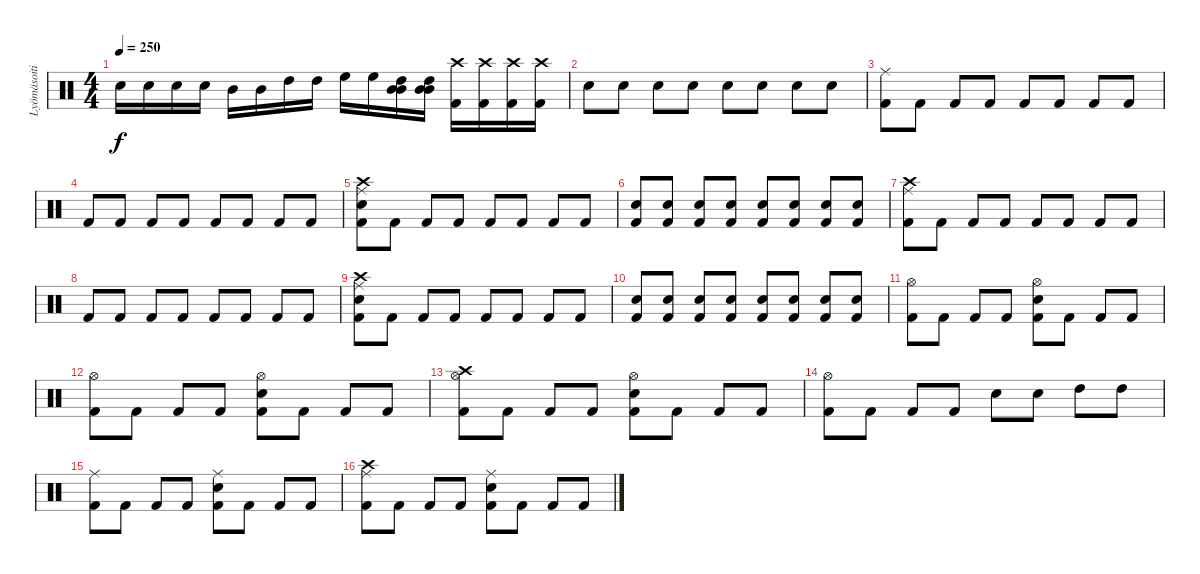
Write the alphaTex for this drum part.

\track ("Lyömäsoitin" "Lyömäsoiti") {instrument percussion}
\staff {score}
\articulation defaults
\ts (4 4)
\tempo 250
\clef neutral
\ks c "Electric Snare (hit)".16{dy f} "Electric Snare (hit)".16 "Electric Snare (hit)".16 "Electric Snare (hit)".16 "Mid Tom (hit)".16 "Mid Tom (hit)".16 "High Tom (hit)".16 "High Tom (hit)".16 "High Floor Tom (hit)".16 "High Floor Tom (hit)".16
("High Tom (hit)" "Mid Tom (hit)" "Mid Tom (hit)").16 ("High Tom (hit)" "Mid Tom (hit)" "Mid Tom (hit)").16 ("Crash high (hit)" "Kick (hit) 2").16 ("Crash high (hit)" "Kick (hit) 2").16 ("Crash high (hit)" "Kick (hit) 2").16 ("Crash high (hit)" "Kick (hit) 2").16 |
"Electric Snare (hit)".8 "Electric Snare (hit)".8 "Electric Snare (hit)".8 "Electric Snare (hit)".8 "Electric Snare (hit)".8 "Electric Snare (hit)".8 "Electric Snare (hit)".8 "Electric Snare (hit)".8 |
("Ride (middle)" "Kick (hit) 2").8 "Kick (hit) 2".8 "Kick (hit) 2".8 "Kick (hit) 2".8 "Kick (hit) 2".8 "Kick (hit) 2".8 "Kick (hit) 2".8 "Kick (hit) 2".8 |
"Kick (hit) 2".8 "Kick (hit) 2".8 "Kick (hit) 2".8 "Kick (hit) 2".8 "Kick (hit) 2".8 "Kick (hit) 2".8 "Kick (hit) 2".8 "Kick (hit) 2".8 |
("Crash high (hit)" "Ride (middle)" "Electric Snare (hit)" "Kick (hit) 2").8 "Kick (hit) 2".8 "Kick (hit) 2".8 "Kick (hit) 2".8 "Kick (hit) 2".8 "Kick (hit) 2".8 "Kick (hit) 2".8 "Kick (hit) 2".8 |
("Kick (hit) 2" "Electric Snare (hit)").8 ("Kick (hit) 2" "Electric Snare (hit)").8 ("Kick (hit) 2" "Electric Snare (hit)").8 ("Kick (hit) 2" "Electric Snare (hit)").8 ("Kick (hit) 2" "Electric Snare (hit)").8 ("Kick (hit) 2" "Electric Snare (hit)").8 ("Kick (hit) 2" "Electric Snare (hit)").8 ("Kick (hit) 2" "Electric Snare (hit)").8 |
("Crash high (hit)" "Ride (middle)" "Kick (hit) 2").8 "Kick (hit) 2".8 "Kick (hit) 2".8 "Kick (hit) 2".8 "Kick (hit) 2".8 "Kick (hit) 2".8 "Kick (hit) 2".8 "Kick (hit) 2".8 |
"Kick (hit) 2".8 "Kick (hit) 2".8 "Kick (hit) 2".8 "Kick (hit) 2".8 "Kick (hit) 2".8 "Kick (hit) 2".8 "Kick (hit) 2".8 "Kick (hit) 2".8 |
("Crash high (hit)" "Ride (middle)" "Electric Snare (hit)" "Kick (hit) 2").8 "Kick (hit) 2".8 "Kick (hit) 2".8 "Kick (hit) 2".8 "Kick (hit) 2".8 "Kick (hit) 2".8 "Kick (hit) 2".8 "Kick (hit) 2".8 |
("Kick (hit) 2" "Electric Snare (hit)").8 ("Kick (hit) 2" "Electric Snare (hit)").8 ("Kick (hit) 2" "Electric Snare (hit)").8 ("Kick (hit) 2" "Electric Snare (hit)").8 ("Kick (hit) 2" "Electric Snare (hit)").8 ("Kick (hit) 2" "Electric Snare (hit)").8 ("Kick (hit) 2" "Electric Snare (hit)").8 ("Kick (hit) 2" "Electric Snare (hit)").8 |
("Hi-Hat (open)" "Kick (hit) 2").8 "Kick (hit) 2".8 "Kick (hit) 2".8 "Kick (hit) 2".8 ("Hi-Hat (open)" "Electric Snare (hit)" "Kick (hit) 2").8 "Kick (hit) 2".8 "Kick (hit) 2".8 "Kick (hit) 2".8 |
("Hi-Hat (open)" "Kick (hit) 2").8 "Kick (hit) 2".8 "Kick (hit) 2".8 "Kick (hit) 2".8 ("Hi-Hat (open)" "Electric Snare (hit)" "Kick (hit) 2").8 "Kick (hit) 2".8 "Kick (hit) 2".8 "Kick (hit) 2".8 |
("Crash high (hit)" "Hi-Hat (open)" "Kick (hit) 2").8 "Kick (hit) 2".8 "Kick (hit) 2".8 "Kick (hit) 2".8 ("Hi-Hat (open)" "Electric Snare (hit)" "Kick (hit) 2").8 "Kick (hit) 2".8 "Kick (hit) 2".8 "Kick (hit) 2".8 |
("Hi-Hat (open)" "Kick (hit) 2").8 "Kick (hit) 2".8 "Kick (hit) 2".8 "Kick (hit) 2".8 "Electric Snare (hit)".8 "Electric Snare (hit)".8 "High Tom (hit)".8 "High Tom (hit)".8 |
("Ride (middle)" "Kick (hit) 2").8 "Kick (hit) 2".8 "Kick (hit) 2".8 "Kick (hit) 2".8 ("Ride (middle)" "Electric Snare (hit)" "Kick (hit) 2").8 "Kick (hit) 2".8 "Kick (hit) 2".8 "Kick (hit) 2".8 |
("Crash high (hit)" "Ride (middle)" "Kick (hit) 2").8 "Kick (hit) 2".8 "Kick (hit) 2".8 "Kick (hit) 2".8 ("Ride (middle)" "Electric Snare (hit)" "Kick (hit) 2").8 "Kick (hit) 2".8 "Kick (hit) 2".8 "Kick (hit) 2".8
